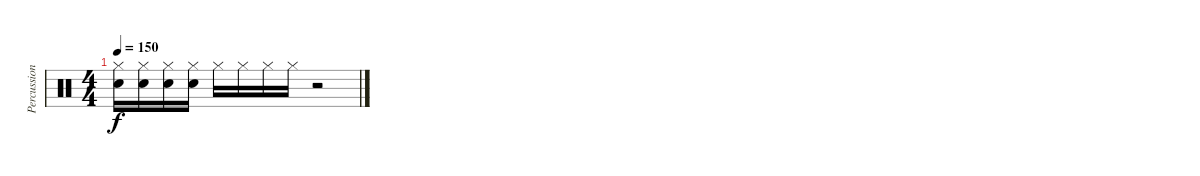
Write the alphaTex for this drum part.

\track ("Percussions" "Percussion") {instrument percussion}
\staff {score}
\articulation defaults
\ts (4 4)
\tempo 150
\clef neutral
\ks c
("Hi-Hat (closed)" "Electric Snare (hit)").16{dy f} ("Hi-Hat (closed)" "Electric Snare (hit)").16 ("Hi-Hat (closed)" "Electric Snare (hit)").16 ("Hi-Hat (closed)" "Electric Snare (hit)").16 "Hi-Hat (closed)".16 "Hi-Hat (closed)".16 "Hi-Hat (closed)".16 "Hi-Hat (closed)".16 r.2
